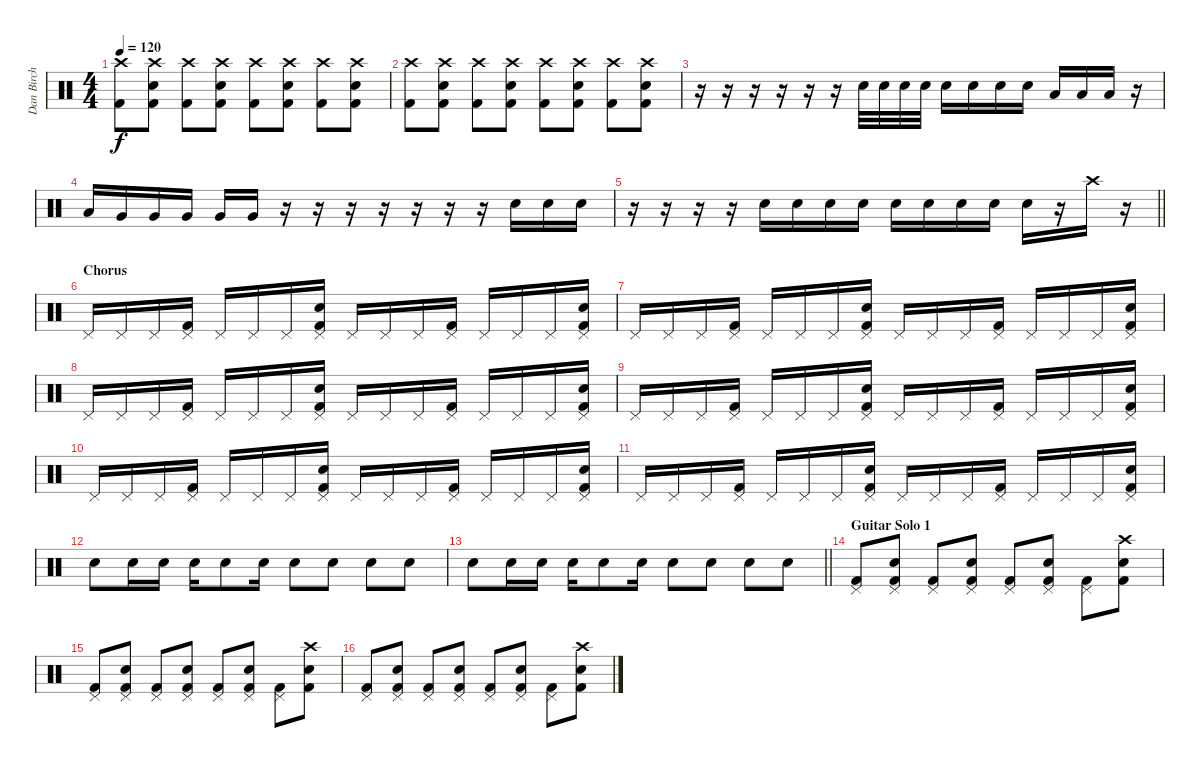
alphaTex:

\track ("Dan Birch" "Dan Birch") {instrument percussion}
\staff {score}
\articulation defaults
\ts (4 4)
\tempo 120
\clef neutral
\ks c
("Crash high (hit)" "Kick (hit) 2").8{dy f} ("Crash high (hit)" "Snare (hit) 2" "Kick (hit) 2").8 ("Crash high (hit)" "Kick (hit) 2").8 ("Crash high (hit)" "Snare (hit) 2" "Kick (hit) 2").8 ("Crash high (hit)" "Kick (hit) 2").8 ("Crash high (hit)" "Snare (hit) 2" "Kick (hit) 2").8 ("Crash high (hit)" "Kick (hit) 2").8 ("Crash high (hit)" "Snare (hit) 2" "Kick (hit) 2").8 |
("Crash high (hit)" "Kick (hit) 2").8 ("Crash high (hit)" "Snare (hit) 2" "Kick (hit) 2").8 ("Crash high (hit)" "Kick (hit) 2").8 ("Crash high (hit)" "Snare (hit) 2" "Kick (hit) 2").8 ("Crash high (hit)" "Kick (hit) 2").8 ("Crash high (hit)" "Snare (hit) 2" "Kick (hit) 2").8 ("Crash high (hit)" "Kick (hit) 2").8 ("Crash high (hit)" "Snare (hit) 2" "Kick (hit) 2").8 |
r.16 r.16 r.16 r.16 r.16 r.16 "Snare (hit) 2".32 "Snare (hit) 2".32 "Snare (hit) 2".32 "Snare (hit) 2".32 "Snare (hit) 2".16 "Snare (hit) 2".16 "Snare (hit) 2".16 "Snare (hit) 2".16 "Low Tom (hit)".16 "Low Tom (hit)".16 "Low Tom (hit)".16 r.16 |
"Low Tom (hit)".16 "Very Low Tom (hit)".16 "Very Low Tom (hit)".16 "Very Low Tom (hit)".16 "Very Low Tom (hit)".16 "Very Low Tom (hit)".16 r.16 r.16 r.16 r.16 r.16 r.16 r.16 "Snare (hit) 2".16 "Snare (hit) 2".16 "Snare (hit) 2".16 |
\barLineRight lightlight
r.16 r.16 r.16 r.16 "Snare (hit) 2".16 "Snare (hit) 2".16 "Snare (hit) 2".16 "Snare (hit) 2".16 "Snare (hit) 2".16 "Snare (hit) 2".16 "Snare (hit) 2".16 "Snare (hit) 2".16 "Snare (hit) 2".16 r.16 "Crash high (hit)".16 r.16 |
\section ("" "Chorus")
"Pedal Hi-Hat (hit)".16 "Pedal Hi-Hat (hit)".16 "Pedal Hi-Hat (hit)".16 ("Pedal Hi-Hat (hit)" "Kick (hit) 2").16 "Pedal Hi-Hat (hit)".16 "Pedal Hi-Hat (hit)".16 "Pedal Hi-Hat (hit)".16 ("Pedal Hi-Hat (hit)" "Snare (hit) 2" "Kick (hit) 2").16 "Pedal Hi-Hat (hit)".16 "Pedal Hi-Hat (hit)".16 "Pedal Hi-Hat (hit)".16 ("Pedal Hi-Hat (hit)" "Kick (hit) 2").16 "Pedal Hi-Hat (hit)".16 "Pedal Hi-Hat (hit)".16 "Pedal Hi-Hat (hit)".16 ("Pedal Hi-Hat (hit)" "Snare (hit) 2" "Kick (hit) 2").16 |
"Pedal Hi-Hat (hit)".16 "Pedal Hi-Hat (hit)".16 "Pedal Hi-Hat (hit)".16 ("Pedal Hi-Hat (hit)" "Kick (hit) 2").16 "Pedal Hi-Hat (hit)".16 "Pedal Hi-Hat (hit)".16 "Pedal Hi-Hat (hit)".16 ("Pedal Hi-Hat (hit)" "Snare (hit) 2" "Kick (hit) 2").16 "Pedal Hi-Hat (hit)".16 "Pedal Hi-Hat (hit)".16 "Pedal Hi-Hat (hit)".16 ("Pedal Hi-Hat (hit)" "Kick (hit) 2").16 "Pedal Hi-Hat (hit)".16 "Pedal Hi-Hat (hit)".16 "Pedal Hi-Hat (hit)".16 ("Pedal Hi-Hat (hit)" "Snare (hit) 2" "Kick (hit) 2").16 |
"Pedal Hi-Hat (hit)".16 "Pedal Hi-Hat (hit)".16 "Pedal Hi-Hat (hit)".16 ("Pedal Hi-Hat (hit)" "Kick (hit) 2").16 "Pedal Hi-Hat (hit)".16 "Pedal Hi-Hat (hit)".16 "Pedal Hi-Hat (hit)".16 ("Pedal Hi-Hat (hit)" "Snare (hit) 2" "Kick (hit) 2").16 "Pedal Hi-Hat (hit)".16 "Pedal Hi-Hat (hit)".16 "Pedal Hi-Hat (hit)".16 ("Pedal Hi-Hat (hit)" "Kick (hit) 2").16 "Pedal Hi-Hat (hit)".16 "Pedal Hi-Hat (hit)".16 "Pedal Hi-Hat (hit)".16 ("Pedal Hi-Hat (hit)" "Snare (hit) 2" "Kick (hit) 2").16 |
"Pedal Hi-Hat (hit)".16 "Pedal Hi-Hat (hit)".16 "Pedal Hi-Hat (hit)".16 ("Pedal Hi-Hat (hit)" "Kick (hit) 2").16 "Pedal Hi-Hat (hit)".16 "Pedal Hi-Hat (hit)".16 "Pedal Hi-Hat (hit)".16 ("Pedal Hi-Hat (hit)" "Snare (hit) 2" "Kick (hit) 2").16 "Pedal Hi-Hat (hit)".16 "Pedal Hi-Hat (hit)".16 "Pedal Hi-Hat (hit)".16 ("Pedal Hi-Hat (hit)" "Kick (hit) 2").16 "Pedal Hi-Hat (hit)".16 "Pedal Hi-Hat (hit)".16 "Pedal Hi-Hat (hit)".16 ("Pedal Hi-Hat (hit)" "Snare (hit) 2" "Kick (hit) 2").16 |
"Pedal Hi-Hat (hit)".16 "Pedal Hi-Hat (hit)".16 "Pedal Hi-Hat (hit)".16 ("Pedal Hi-Hat (hit)" "Kick (hit) 2").16 "Pedal Hi-Hat (hit)".16 "Pedal Hi-Hat (hit)".16 "Pedal Hi-Hat (hit)".16 ("Pedal Hi-Hat (hit)" "Snare (hit) 2" "Kick (hit) 2").16 "Pedal Hi-Hat (hit)".16 "Pedal Hi-Hat (hit)".16 "Pedal Hi-Hat (hit)".16 ("Pedal Hi-Hat (hit)" "Kick (hit) 2").16 "Pedal Hi-Hat (hit)".16 "Pedal Hi-Hat (hit)".16 "Pedal Hi-Hat (hit)".16 ("Pedal Hi-Hat (hit)" "Snare (hit) 2" "Kick (hit) 2").16 |
"Pedal Hi-Hat (hit)".16 "Pedal Hi-Hat (hit)".16 "Pedal Hi-Hat (hit)".16 ("Pedal Hi-Hat (hit)" "Kick (hit) 2").16 "Pedal Hi-Hat (hit)".16 "Pedal Hi-Hat (hit)".16 "Pedal Hi-Hat (hit)".16 ("Pedal Hi-Hat (hit)" "Snare (hit) 2" "Kick (hit) 2").16 "Pedal Hi-Hat (hit)".16 "Pedal Hi-Hat (hit)".16 "Pedal Hi-Hat (hit)".16 ("Pedal Hi-Hat (hit)" "Kick (hit) 2").16 "Pedal Hi-Hat (hit)".16 "Pedal Hi-Hat (hit)".16 "Pedal Hi-Hat (hit)".16 ("Pedal Hi-Hat (hit)" "Snare (hit) 2" "Kick (hit) 2").16 |
"Snare (hit) 2".8 "Snare (hit) 2".16 "Snare (hit) 2".16 "Snare (hit) 2".16 "Snare (hit) 2".8 "Snare (hit) 2".16 "Snare (hit) 2".8 "Snare (hit) 2".8 "Snare (hit) 2".8 "Snare (hit) 2".8 |
\barLineRight lightlight "Snare (hit) 2".8 "Snare (hit) 2".16 "Snare (hit) 2".16 "Snare (hit) 2".16 "Snare (hit) 2".8 "Snare (hit) 2".16 "Snare (hit) 2".8 "Snare (hit) 2".8 "Snare (hit) 2".8 "Snare (hit) 2".8
|
\section ("" "Guitar Solo 1")
("Pedal Hi-Hat (hit)" "Kick (hit) 2").8 ("Pedal Hi-Hat (hit)" "Snare (hit) 2" "Kick (hit) 2").8 ("Pedal Hi-Hat (hit)" "Kick (hit) 2").8 ("Pedal Hi-Hat (hit)" "Snare (hit) 2" "Kick (hit) 2").8 ("Pedal Hi-Hat (hit)" "Kick (hit) 2").8 ("Pedal Hi-Hat (hit)" "Snare (hit) 2" "Kick (hit) 2").8 ("Pedal Hi-Hat (hit)" "Kick (hit) 2").8 ("Crash high (hit)" "Snare (hit) 2" "Kick (hit) 2").8 |
("Pedal Hi-Hat (hit)" "Kick (hit) 2").8 ("Pedal Hi-Hat (hit)" "Snare (hit) 2" "Kick (hit) 2").8 ("Pedal Hi-Hat (hit)" "Kick (hit) 2").8 ("Pedal Hi-Hat (hit)" "Snare (hit) 2" "Kick (hit) 2").8 ("Pedal Hi-Hat (hit)" "Kick (hit) 2").8 ("Pedal Hi-Hat (hit)" "Snare (hit) 2" "Kick (hit) 2").8 ("Pedal Hi-Hat (hit)" "Kick (hit) 2").8 ("Crash high (hit)" "Snare (hit) 2" "Kick (hit) 2").8 |
("Pedal Hi-Hat (hit)" "Kick (hit) 2").8 ("Pedal Hi-Hat (hit)" "Snare (hit) 2" "Kick (hit) 2").8 ("Pedal Hi-Hat (hit)" "Kick (hit) 2").8 ("Pedal Hi-Hat (hit)" "Snare (hit) 2" "Kick (hit) 2").8 ("Pedal Hi-Hat (hit)" "Kick (hit) 2").8 ("Pedal Hi-Hat (hit)" "Snare (hit) 2" "Kick (hit) 2").8 ("Pedal Hi-Hat (hit)" "Kick (hit) 2").8 ("Crash high (hit)" "Snare (hit) 2" "Kick (hit) 2").8
